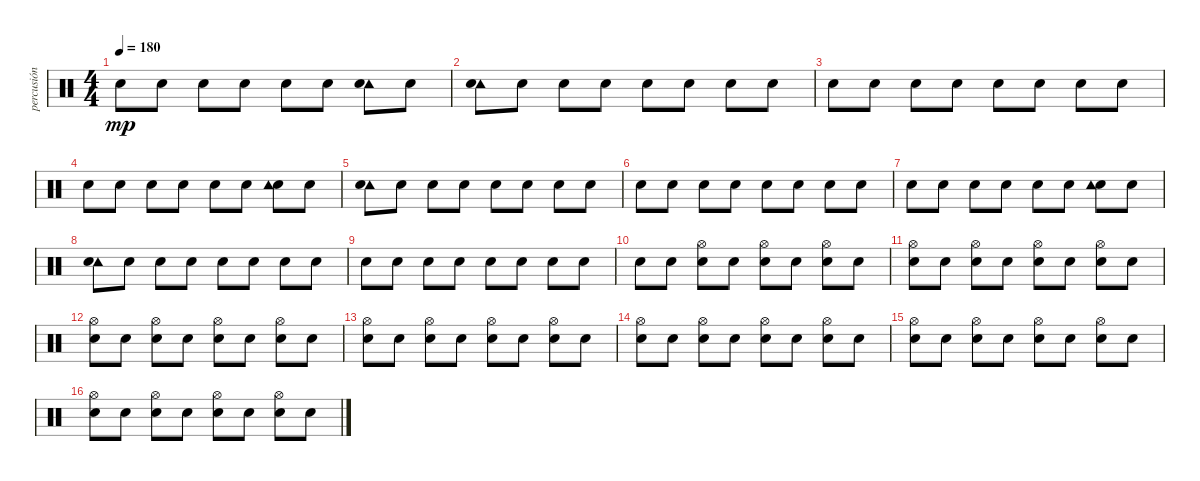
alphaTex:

\track ("percusión" "percusión") {instrument percussion}
\staff {score}
\articulation defaults
\ts (4 4)
\tempo 180
\clef neutral
\ks c "Snare (hit) 2".8{dy mp} "Snare (hit) 2".8 "Snare (hit) 2".8 "Snare (hit) 2".8 "Snare (hit) 2".8 "Snare (hit) 2".8
("Tambourine (hit)" "Snare (hit) 2").8 "Snare (hit) 2".8 |
("Tambourine (hit)" "Snare (hit) 2").8 "Snare (hit) 2".8 "Snare (hit) 2".8 "Snare (hit) 2".8 "Snare (hit) 2".8 "Snare (hit) 2".8 "Snare (hit) 2".8 "Snare (hit) 2".8 |
"Snare (hit) 2".8 "Snare (hit) 2".8 "Snare (hit) 2".8 "Snare (hit) 2".8 "Snare (hit) 2".8 "Snare (hit) 2".8 "Snare (hit) 2".8 "Snare (hit) 2".8 |
"Snare (hit) 2".8 "Snare (hit) 2".8 "Snare (hit) 2".8 "Snare (hit) 2".8 "Snare (hit) 2".8 "Snare (hit) 2".8 ("Snare (hit) 2" "Tambourine (hit)").8 "Snare (hit) 2".8 |
("Tambourine (hit)" "Snare (hit) 2").8 "Snare (hit) 2".8 "Snare (hit) 2".8 "Snare (hit) 2".8 "Snare (hit) 2".8 "Snare (hit) 2".8 "Snare (hit) 2".8 "Snare (hit) 2".8 |
"Snare (hit) 2".8 "Snare (hit) 2".8 "Snare (hit) 2".8 "Snare (hit) 2".8 "Snare (hit) 2".8 "Snare (hit) 2".8 "Snare (hit) 2".8 "Snare (hit) 2".8 |
"Snare (hit) 2".8 "Snare (hit) 2".8 "Snare (hit) 2".8 "Snare (hit) 2".8 "Snare (hit) 2".8 "Snare (hit) 2".8 ("Snare (hit) 2" "Tambourine (hit)").8 "Snare (hit) 2".8 |
("Tambourine (hit)" "Snare (hit) 2").8 "Snare (hit) 2".8 "Snare (hit) 2".8 "Snare (hit) 2".8 "Snare (hit) 2".8 "Snare (hit) 2".8 "Snare (hit) 2".8 "Snare (hit) 2".8 |
"Snare (hit) 2".8 "Snare (hit) 2".8 "Snare (hit) 2".8 "Snare (hit) 2".8 "Snare (hit) 2".8 "Snare (hit) 2".8 "Snare (hit) 2".8 "Snare (hit) 2".8 |
"Snare (hit) 2".8 "Snare (hit) 2".8 ("Hi-Hat (open)" "Snare (hit) 2").8 "Snare (hit) 2".8 ("Snare (hit) 2" "Hi-Hat (open)").8 "Snare (hit) 2".8 ("Hi-Hat (open)" "Snare (hit) 2").8 "Snare (hit) 2".8 |
("Snare (hit) 2" "Hi-Hat (open)").8 "Snare (hit) 2".8 ("Hi-Hat (open)" "Snare (hit) 2").8 "Snare (hit) 2".8 ("Hi-Hat (open)" "Snare (hit) 2").8 "Snare (hit) 2".8 ("Snare (hit) 2" "Hi-Hat (open)").8 "Snare (hit) 2".8 |
("Hi-Hat (open)" "Snare (hit) 2").8 "Snare (hit) 2".8 ("Snare (hit) 2" "Hi-Hat (open)").8 "Snare (hit) 2".8 ("Hi-Hat (open)" "Snare (hit) 2").8 "Snare (hit) 2".8 ("Snare (hit) 2" "Hi-Hat (open)").8 "Snare (hit) 2".8 |
("Snare (hit) 2" "Hi-Hat (open)").8 "Snare (hit) 2".8 ("Snare (hit) 2" "Hi-Hat (open)").8 "Snare (hit) 2".8 ("Hi-Hat (open)" "Snare (hit) 2").8 "Snare (hit) 2".8 ("Hi-Hat (open)" "Snare (hit) 2").8 "Snare (hit) 2".8 |
("Snare (hit) 2" "Hi-Hat (open)").8 "Snare (hit) 2".8 ("Hi-Hat (open)" "Snare (hit) 2").8 "Snare (hit) 2".8 ("Snare (hit) 2" "Hi-Hat (open)").8 "Snare (hit) 2".8 ("Hi-Hat (open)" "Snare (hit) 2").8 "Snare (hit) 2".8 |
("Hi-Hat (open)" "Snare (hit) 2").8 "Snare (hit) 2".8 ("Snare (hit) 2" "Hi-Hat (open)").8 "Snare (hit) 2".8 ("Hi-Hat (open)" "Snare (hit) 2").8 "Snare (hit) 2".8 ("Snare (hit) 2" "Hi-Hat (open)").8 "Snare (hit) 2".8 |
("Snare (hit) 2" "Hi-Hat (open)").8 "Snare (hit) 2".8 ("Hi-Hat (open)" "Snare (hit) 2").8 "Snare (hit) 2".8 ("Snare (hit) 2" "Hi-Hat (open)").8 "Snare (hit) 2".8 ("Snare (hit) 2" "Hi-Hat (open)").8 "Snare (hit) 2".8
